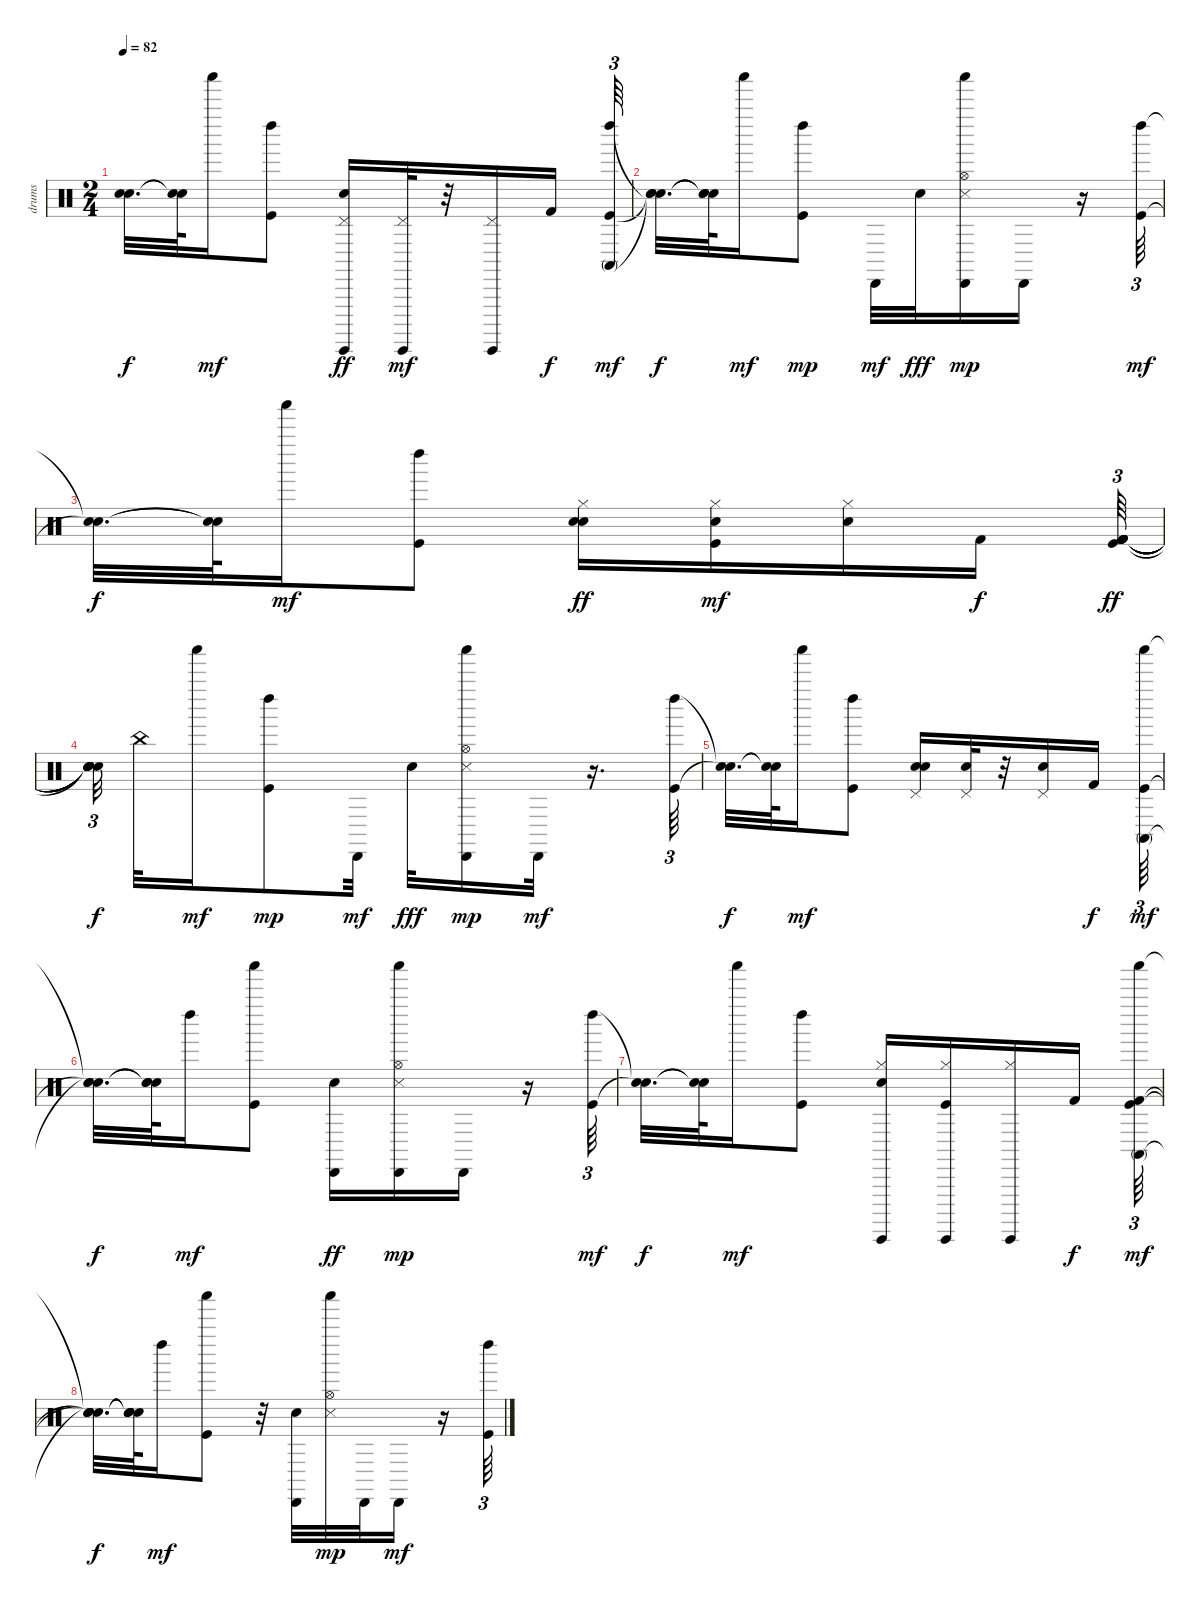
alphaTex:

\track ("drums" "drums") {instrument percussion}
\staff {score}
\articulation defaults
\ts (2 4)
\tempo 82
\clef neutral
\ks c
("Snare (hit)"{t} "Snare (hit)"{t}).32{d dy f} ("Snare (hit)"{t} "Snare (hit)"{t}).64 "Shaker (hit)".16{dy mf} ("Kick (hit)" "Left Maraca (hit)").8 ("Pedal Hi-Hat (hit)" "Guiro (hit)" "Electric Snare (hit)").16{dy ff} ("Guiro (hit)" "Pedal Hi-Hat (hit)").32{dy mf} r.32 ("Guiro (hit)" "Pedal Hi-Hat (hit)").16 "Kick (hit) 2".16{dy f} ("Kick (hit)" "Left Maraca (hit)" "Conga high (mute)").64{tu (3 2) dy mf} |
("Snare (hit)"{t} "Snare (hit)"{t} "Snare (hit)"{t}).32{d dy f} ("Snare (hit)"{t} "Snare (hit)"{t} "Snare (hit)"{t}).64 "Shaker (hit)".16{dy mf} ("Kick (hit)" "Left Maraca (hit)").8{dy mp} "Cabasa (hit)".32{dy mf} "Electric Snare (hit)".32{dy fff} ("Cabasa (hit)" "Snare (side stick) 3" "Shaker (hit)" "Hi-Hat (open)").16{dy mp} "Cabasa (hit)".16 r.16 ("Kick (hit)" "Left Maraca (hit)").64{tu (3 2) dy mf} |
("Snare (hit)"{t} "Snare (hit)"{t}).32{d dy f} ("Snare (hit)"{t} "Snare (hit)"{t}).64 "Shaker (hit)".16{dy mf} ("Kick (hit)" "Left Maraca (hit)").8 ("Hand Clap (hit)" "Hi-Hat (closed)" "Electric Snare (hit)").16{dy ff} ("Kick (hit)" "Hi-Hat (closed)" "Hand Clap (hit)").16{dy mf} ("Hi-Hat (closed)" "Hand Clap (hit)").16 "Kick (hit) 2".16{dy f} ("Kick (hit) 2" "Kick (hit) 2" "Kick (hit) 2" "Kick (hit) 2" "Kick (hit) 2" "Kick (hit)").64{tu (3 2) dy ff} |
("Snare (hit)"{t} "Snare (hit)"{t} "Snare (hit)"{t} "Snare (hit)"{t} "Snare (hit)"{t} "Snare (hit)"{t}).32{tu (3 2) dy f beam splitsecondary} "China (hit)".32 "Shaker (hit)".16{dy mf} ("Kick (hit)" "Left Maraca (hit)").8{dy mp} "Cabasa (hit)".32{dy mf} "Electric Snare (hit)".32{dy fff} ("Cabasa (hit)" "Snare (side stick) 3" "Shaker (hit)" "Hi-Hat (open)").16{dy mp} "Cabasa (hit)".32{dy mf} r.16{d} ("Kick (hit)" "Left Maraca (hit)").64{tu (3 2)} |
("Snare (hit)"{t} "Snare (hit)"{t}).32{d dy f} ("Snare (hit)"{t} "Snare (hit)"{t}).64 "Shaker (hit)".16{dy mf} ("Kick (hit)" "Left Maraca (hit)").8 ("Electric Snare (hit)" "Hand Clap (hit)" "Pedal Hi-Hat (hit)").16 ("Pedal Hi-Hat (hit)" "Hand Clap (hit)").32 r.32 ("Pedal Hi-Hat (hit)" "Hand Clap (hit)").16 "Kick (hit) 2".16{dy f} ("Kick (hit)" "Shaker (hit)" "Conga high (mute)").64{tu (3 2) dy mf} |
("Snare (hit)"{t} "Snare (hit)"{t} "Snare (hit)"{t}).32{d dy f} ("Snare (hit)"{t} "Snare (hit)"{t} "Snare (hit)"{t}).64 "Left Maraca (hit)".16{dy mf} ("Kick (hit)" "Shaker (hit)").8 ("Cabasa (hit)" "Electric Snare (hit)").16{dy ff} ("Cabasa (hit)" "Snare (side stick) 3" "Shaker (hit)" "Hi-Hat (open)").16{dy mp} "Cabasa (hit)".16 r.16 ("Kick (hit)" "Left Maraca (hit)").64{tu (3 2) dy mf} |
("Snare (hit)"{t} "Snare (hit)"{t}).32{d dy f} ("Snare (hit)"{t} "Snare (hit)"{t}).64 "Shaker (hit)".16{dy mf} ("Kick (hit)" "Left Maraca (hit)").8 ("Electric Snare (hit)" "Hi-Hat (closed)" "Guiro (hit)").16 ("Kick (hit)" "Guiro (hit)" "Hi-Hat (closed)").16 ("Guiro (hit)" "Hi-Hat (closed)").16 "Kick (hit) 2".16{dy f} ("Kick (hit) 2" "Kick (hit)" "Shaker (hit)" "Conga high (mute)").64{tu (3 2) dy mf} |
("Snare (hit)"{t} "Snare (hit)"{t} "Snare (hit)"{t} "Snare (hit)"{t}).32{d dy f} ("Snare (hit)"{t} "Snare (hit)"{t} "Snare (hit)"{t} "Snare (hit)"{t}).64 "Left Maraca (hit)".16{dy mf} ("Kick (hit)" "Shaker (hit)").8 r.32 ("Electric Snare (hit)" "Cabasa (hit)").32 ("Snare (side stick) 3" "Shaker (hit)" "Hi-Hat (open)").32{dy mp} "Cabasa (hit)".32 "Cabasa (hit)".16{dy mf} r.16 ("Kick (hit)" "Left Maraca (hit)").64{tu (3 2)}
